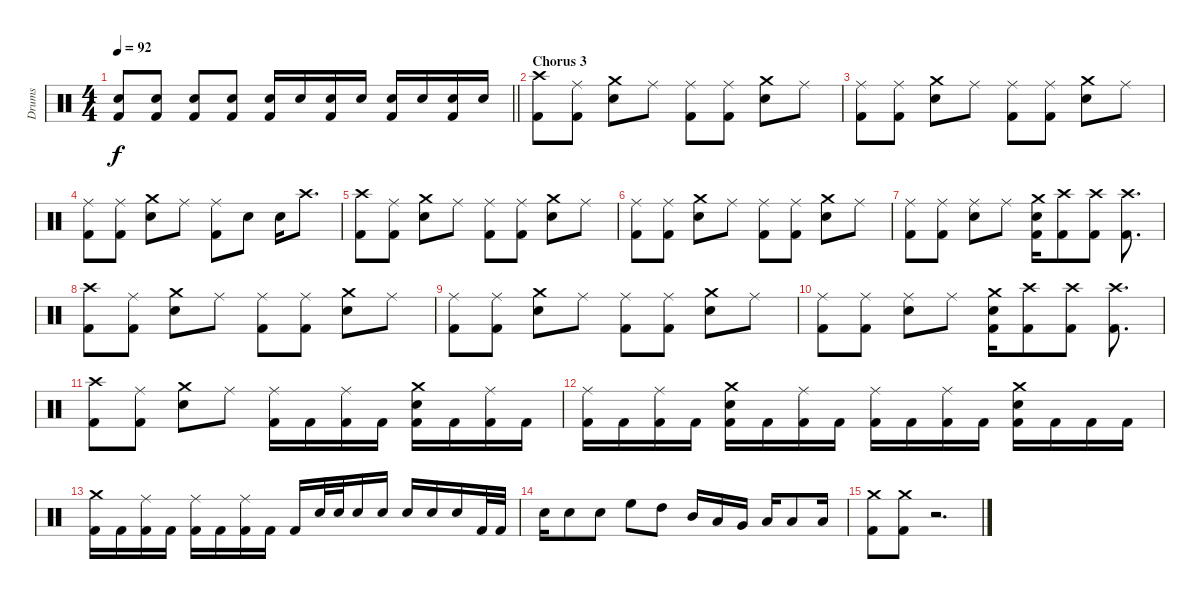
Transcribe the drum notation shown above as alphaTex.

\track ("Drums" "Drums") {instrument percussion}
\staff {score}
\articulation defaults
\ts (4 4)
\tempo 92
\clef neutral
\barLineRight lightlight
\ks c
("Snare (hit) 2" "Kick (hit) 2").8{dy f} ("Snare (hit) 2" "Kick (hit) 2").8 ("Snare (hit) 2" "Kick (hit) 2").8 ("Snare (hit) 2" "Kick (hit) 2").8 ("Snare (hit) 2" "Kick (hit) 2").16 "Snare (hit) 2".16 ("Snare (hit) 2" "Kick (hit) 2").16 "Snare (hit) 2".16 ("Snare (hit) 2" "Kick (hit) 2").16 "Snare (hit) 2".16 ("Snare (hit) 2" "Kick (hit) 2").16 "Snare (hit) 2".16 |
\section ("" "Chorus 3")
("Crash high (hit)" "Kick (hit) 2").8 ("Ride (middle)" "Kick (hit) 2").8 ("Crash medium (hit)" "Snare (hit) 2").8 "Ride (middle)".8 ("Ride (middle)" "Kick (hit) 2").8 ("Ride (middle)" "Kick (hit) 2").8 ("Crash medium (hit)" "Snare (hit) 2").8 "Ride (middle)".8 |
("Ride (middle)" "Kick (hit) 2").8 ("Ride (middle)" "Kick (hit) 2").8 ("Crash medium (hit)" "Snare (hit) 2").8 "Ride (middle)".8 ("Ride (middle)" "Kick (hit) 2").8 ("Ride (middle)" "Kick (hit) 2").8 ("Crash medium (hit)" "Snare (hit) 2").8 "Ride (middle)".8 |
("Ride (middle)" "Kick (hit) 2").8 ("Ride (middle)" "Kick (hit) 2").8 ("Crash medium (hit)" "Snare (hit) 2").8 "Ride (middle)".8 ("Ride (middle)" "Kick (hit) 2").8 "Snare (hit) 2".8 "Snare (hit) 2".16 "Crash high (hit)".8{d} |
("Crash high (hit)" "Kick (hit) 2").8 ("Ride (middle)" "Kick (hit) 2").8 ("Crash medium (hit)" "Snare (hit) 2").8 "Ride (middle)".8 ("Ride (middle)" "Kick (hit) 2").8 ("Ride (middle)" "Kick (hit) 2").8 ("Crash medium (hit)" "Snare (hit) 2").8 "Ride (middle)".8 |
("Ride (middle)" "Kick (hit) 2").8 ("Ride (middle)" "Kick (hit) 2").8 ("Crash medium (hit)" "Snare (hit) 2").8 "Ride (middle)".8 ("Ride (middle)" "Kick (hit) 2").8 ("Ride (middle)" "Kick (hit) 2").8 ("Crash medium (hit)" "Snare (hit) 2").8 "Ride (middle)".8 |
("Ride (middle)" "Kick (hit) 2").8 ("Ride (middle)" "Kick (hit) 2").8 ("Ride (middle)" "Snare (hit) 2").8 "Ride (middle)".8 ("Crash medium (hit)" "Snare (hit) 2" "Kick (hit) 2").16 ("Crash high (hit)" "Kick (hit) 2").8 ("Crash high (hit)" "Kick (hit) 2").8 ("Crash high (hit)" "Kick (hit) 2").8{d} |
("Crash high (hit)" "Kick (hit) 2").8 ("Ride (middle)" "Kick (hit) 2").8 ("Crash medium (hit)" "Snare (hit) 2").8 "Ride (middle)".8 ("Ride (middle)" "Kick (hit) 2").8 ("Ride (middle)" "Kick (hit) 2").8 ("Crash medium (hit)" "Snare (hit) 2").8 "Ride (middle)".8 |
("Ride (middle)" "Kick (hit) 2").8 ("Ride (middle)" "Kick (hit) 2").8 ("Crash medium (hit)" "Snare (hit) 2").8 "Ride (middle)".8 ("Ride (middle)" "Kick (hit) 2").8 ("Ride (middle)" "Kick (hit) 2").8 ("Crash medium (hit)" "Snare (hit) 2").8 "Ride (middle)".8 |
("Ride (middle)" "Kick (hit) 2").8 ("Ride (middle)" "Kick (hit) 2").8 ("Ride (middle)" "Snare (hit) 2").8 "Ride (middle)".8 ("Crash medium (hit)" "Snare (hit) 2" "Kick (hit) 2").16 ("Crash high (hit)" "Kick (hit) 2").8 ("Crash high (hit)" "Kick (hit) 2").8 ("Crash high (hit)" "Kick (hit) 2").8{d} |
("Crash high (hit)" "Kick (hit) 2").8 ("Ride (middle)" "Kick (hit) 2").8 ("Crash medium (hit)" "Snare (hit) 2").8 "Ride (middle)".8 ("Ride (middle)" "Kick (hit) 2").16 "Kick (hit) 2".16 ("Ride (middle)" "Kick (hit) 2").16 "Kick (hit) 2".16 ("Crash medium (hit)" "Snare (hit) 2" "Kick (hit) 2").16 "Kick (hit) 2".16 ("Ride (middle)" "Kick (hit) 2").16 "Kick (hit) 2".16 |
("Ride (middle)" "Kick (hit) 2").16 "Kick (hit) 2".16 ("Ride (middle)" "Kick (hit) 2").16 "Kick (hit) 2".16 ("Crash medium (hit)" "Snare (hit) 2" "Kick (hit) 2").16 "Kick (hit) 2".16 ("Ride (middle)" "Kick (hit) 2").16 "Kick (hit) 2".16 ("Ride (middle)" "Kick (hit) 2").16 "Kick (hit) 2".16 ("Ride (middle)" "Kick (hit) 2").16 "Kick (hit) 2".16 ("Crash medium (hit)" "Snare (hit) 2" "Kick (hit) 2").16 "Kick (hit) 2".16 "Kick (hit) 2".16 "Kick (hit) 2".16 |
("Crash medium (hit)" "Kick (hit) 2").16 "Kick (hit) 2".16 ("Ride (middle)" "Kick (hit) 2").16 "Kick (hit) 2".16 ("Ride (middle)" "Kick (hit) 2").16 "Kick (hit) 2".16 ("Ride (middle)" "Kick (hit) 2").16 "Kick (hit) 2".16 "Kick (hit) 2".16 "Snare (hit) 2".32 "Snare (hit) 2".32 "Snare (hit) 2".16 "Snare (hit) 2".16 "Snare (hit) 2".16 "Snare (hit) 2".16 "Snare (hit) 2".16 "Kick (hit) 2".32 "Kick (hit) 2".32 |
"Snare (hit) 2".16 "Snare (hit) 2".8 "Snare (hit) 2".8 "High Floor Tom (hit)".8 "High Tom (hit)".8 "Mid Tom (hit)".16 "Low Tom (hit)".16 "Very Low Tom (hit)".16 "Low Floor Tom (hit)".16 "Low Floor Tom (hit)".8 "Low Floor Tom (hit)".16 |
("Crash medium (hit)" "Kick (hit) 2").8 ("Crash medium (hit)" "Kick (hit) 2").8 r.2{d}
